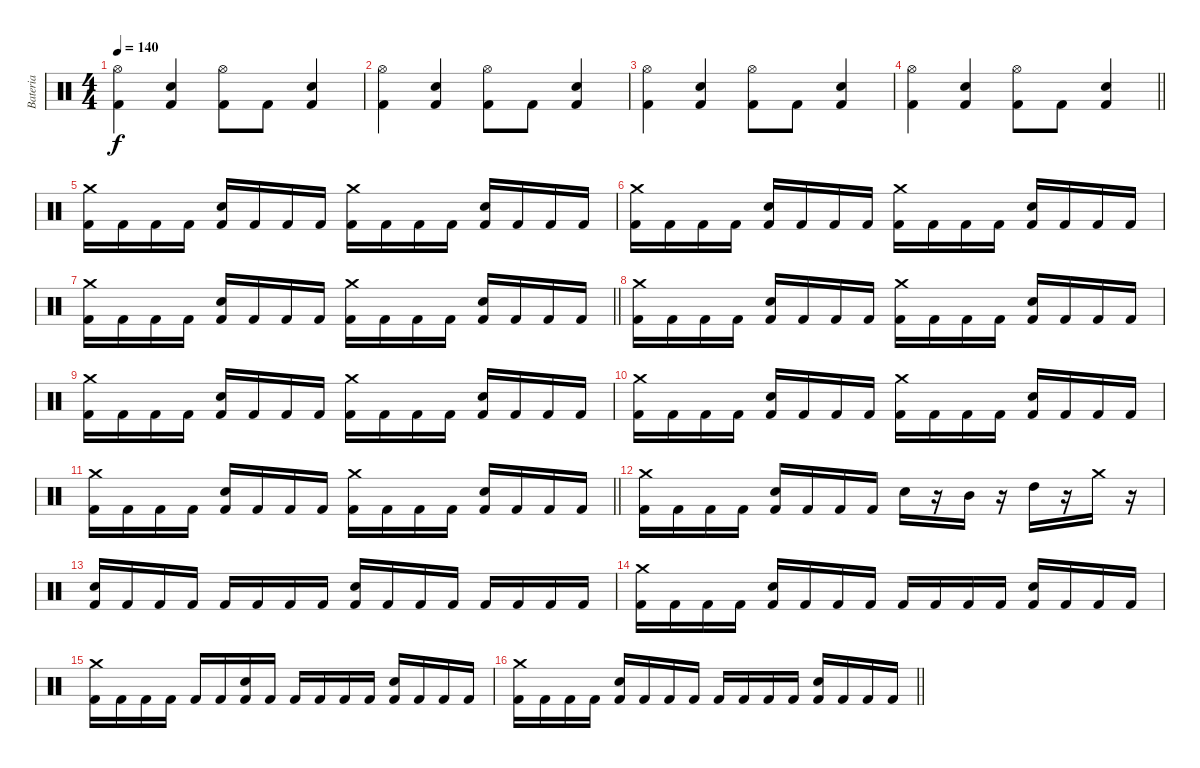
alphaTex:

\track ("Bateria" "Bateria") {instrument percussion}
\staff {score}
\articulation defaults
\ts (4 4)
\tempo 140
\clef neutral
\ks c
("Kick (hit) 2" "Hi-Hat (open)").4{dy f} ("Kick (hit) 2" "Electric Snare (hit)").4 ("Kick (hit) 2" "Hi-Hat (open)").8 "Kick (hit) 2".8 ("Kick (hit) 2" "Electric Snare (hit)").4 |
("Kick (hit) 2" "Hi-Hat (open)").4 ("Kick (hit) 2" "Electric Snare (hit)").4 ("Kick (hit) 2" "Hi-Hat (open)").8 "Kick (hit) 2".8 ("Kick (hit) 2" "Electric Snare (hit)").4 |
("Kick (hit) 2" "Hi-Hat (open)").4 ("Kick (hit) 2" "Electric Snare (hit)").4 ("Kick (hit) 2" "Hi-Hat (open)").8 "Kick (hit) 2".8 ("Kick (hit) 2" "Electric Snare (hit)").4 |
\barLineRight lightlight
("Kick (hit) 2" "Hi-Hat (open)").4 ("Kick (hit) 2" "Electric Snare (hit)").4 ("Kick (hit) 2" "Hi-Hat (open)").8 "Kick (hit) 2".8 ("Kick (hit) 2" "Electric Snare (hit)").4 |
("Kick (hit) 2" "Crash medium (hit)").16 "Kick (hit) 2".16 "Kick (hit) 2".16 "Kick (hit) 2".16 ("Kick (hit) 2" "Electric Snare (hit)").16 "Kick (hit) 2".16 "Kick (hit) 2".16 "Kick (hit) 2".16 ("Kick (hit) 2" "Crash medium (hit)").16 "Kick (hit) 2".16 "Kick (hit) 2".16 "Kick (hit) 2".16 ("Kick (hit) 2" "Electric Snare (hit)").16 "Kick (hit) 2".16 "Kick (hit) 2".16 "Kick (hit) 2".16 |
("Kick (hit) 2" "Crash medium (hit)").16 "Kick (hit) 2".16 "Kick (hit) 2".16 "Kick (hit) 2".16 ("Kick (hit) 2" "Electric Snare (hit)").16 "Kick (hit) 2".16 "Kick (hit) 2".16 "Kick (hit) 2".16 ("Kick (hit) 2" "Crash medium (hit)").16 "Kick (hit) 2".16 "Kick (hit) 2".16 "Kick (hit) 2".16 ("Kick (hit) 2" "Electric Snare (hit)").16 "Kick (hit) 2".16 "Kick (hit) 2".16 "Kick (hit) 2".16 |
\barLineRight lightlight
("Kick (hit) 2" "Crash medium (hit)").16 "Kick (hit) 2".16 "Kick (hit) 2".16 "Kick (hit) 2".16 ("Kick (hit) 2" "Electric Snare (hit)").16 "Kick (hit) 2".16 "Kick (hit) 2".16 "Kick (hit) 2".16 ("Kick (hit) 2" "Crash medium (hit)").16 "Kick (hit) 2".16 "Kick (hit) 2".16 "Kick (hit) 2".16 ("Kick (hit) 2" "Electric Snare (hit)").16 "Kick (hit) 2".16 "Kick (hit) 2".16 "Kick (hit) 2".16 |
("Kick (hit) 2" "Crash medium (hit)").16 "Kick (hit) 2".16 "Kick (hit) 2".16 "Kick (hit) 2".16 ("Kick (hit) 2" "Electric Snare (hit)").16 "Kick (hit) 2".16 "Kick (hit) 2".16 "Kick (hit) 2".16 ("Kick (hit) 2" "Crash medium (hit)").16 "Kick (hit) 2".16 "Kick (hit) 2".16 "Kick (hit) 2".16 ("Kick (hit) 2" "Electric Snare (hit)").16 "Kick (hit) 2".16 "Kick (hit) 2".16 "Kick (hit) 2".16 |
("Kick (hit) 2" "Crash medium (hit)").16 "Kick (hit) 2".16 "Kick (hit) 2".16 "Kick (hit) 2".16 ("Kick (hit) 2" "Electric Snare (hit)").16 "Kick (hit) 2".16 "Kick (hit) 2".16 "Kick (hit) 2".16 ("Kick (hit) 2" "Crash medium (hit)").16 "Kick (hit) 2".16 "Kick (hit) 2".16 "Kick (hit) 2".16 ("Kick (hit) 2" "Electric Snare (hit)").16 "Kick (hit) 2".16 "Kick (hit) 2".16 "Kick (hit) 2".16 |
("Kick (hit) 2" "Crash medium (hit)").16 "Kick (hit) 2".16 "Kick (hit) 2".16 "Kick (hit) 2".16 ("Kick (hit) 2" "Electric Snare (hit)").16 "Kick (hit) 2".16 "Kick (hit) 2".16 "Kick (hit) 2".16 ("Kick (hit) 2" "Crash medium (hit)").16 "Kick (hit) 2".16 "Kick (hit) 2".16 "Kick (hit) 2".16 ("Kick (hit) 2" "Electric Snare (hit)").16 "Kick (hit) 2".16 "Kick (hit) 2".16 "Kick (hit) 2".16 |
\barLineRight lightlight
("Kick (hit) 2" "Crash medium (hit)").16 "Kick (hit) 2".16 "Kick (hit) 2".16 "Kick (hit) 2".16 ("Kick (hit) 2" "Electric Snare (hit)").16 "Kick (hit) 2".16 "Kick (hit) 2".16 "Kick (hit) 2".16 ("Kick (hit) 2" "Crash medium (hit)").16 "Kick (hit) 2".16 "Kick (hit) 2".16 "Kick (hit) 2".16 ("Kick (hit) 2" "Electric Snare (hit)").16 "Kick (hit) 2".16 "Kick (hit) 2".16 "Kick (hit) 2".16 |
("Kick (hit) 2" "Crash medium (hit)").16 "Kick (hit) 2".16 "Kick (hit) 2".16 "Kick (hit) 2".16 ("Kick (hit) 2" "Electric Snare (hit)").16 "Kick (hit) 2".16 "Kick (hit) 2".16 "Kick (hit) 2".16 "Snare (hit) 2".16 r.16 "Mid Tom (hit)".16 r.16 "High Tom (hit)".16 r.16 "Crash medium (hit)".16 r.16 |
("Kick (hit) 2" "Electric Snare (hit)").16 "Kick (hit) 2".16 "Kick (hit) 2".16 "Kick (hit) 2".16 "Kick (hit) 2".16 "Kick (hit) 2".16 "Kick (hit) 2".16 "Kick (hit) 2".16 ("Kick (hit) 2" "Electric Snare (hit)").16 "Kick (hit) 2".16 "Kick (hit) 2".16 "Kick (hit) 2".16 "Kick (hit) 2".16 "Kick (hit) 2".16 "Kick (hit) 2".16 "Kick (hit) 2".16 |
("Kick (hit) 2" "Crash medium (hit)").16 "Kick (hit) 2".16 "Kick (hit) 2".16 "Kick (hit) 2".16 ("Kick (hit) 2" "Electric Snare (hit)").16 "Kick (hit) 2".16 "Kick (hit) 2".16 "Kick (hit) 2".16 "Kick (hit) 2".16 "Kick (hit) 2".16 "Kick (hit) 2".16 "Kick (hit) 2".16 ("Kick (hit) 2" "Electric Snare (hit)").16 "Kick (hit) 2".16 "Kick (hit) 2".16 "Kick (hit) 2".16 |
("Kick (hit) 2" "Crash medium (hit)").16 "Kick (hit) 2".16 "Kick (hit) 2".16 "Kick (hit) 2".16 "Kick (hit) 2".16 "Kick (hit) 2".16 ("Kick (hit) 2" "Electric Snare (hit)").16 "Kick (hit) 2".16 "Kick (hit) 2".16 "Kick (hit) 2".16 "Kick (hit) 2".16 "Kick (hit) 2".16 ("Kick (hit) 2" "Electric Snare (hit)").16 "Kick (hit) 2".16 "Kick (hit) 2".16 "Kick (hit) 2".16 |
\barLineRight lightlight
("Kick (hit) 2" "Crash medium (hit)").16 "Kick (hit) 2".16 "Kick (hit) 2".16 "Kick (hit) 2".16 ("Kick (hit) 2" "Electric Snare (hit)").16 "Kick (hit) 2".16 "Kick (hit) 2".16 "Kick (hit) 2".16 "Kick (hit) 2".16 "Kick (hit) 2".16 "Kick (hit) 2".16 "Kick (hit) 2".16 ("Kick (hit) 2" "Electric Snare (hit)").16 "Kick (hit) 2".16 "Kick (hit) 2".16 "Kick (hit) 2".16
